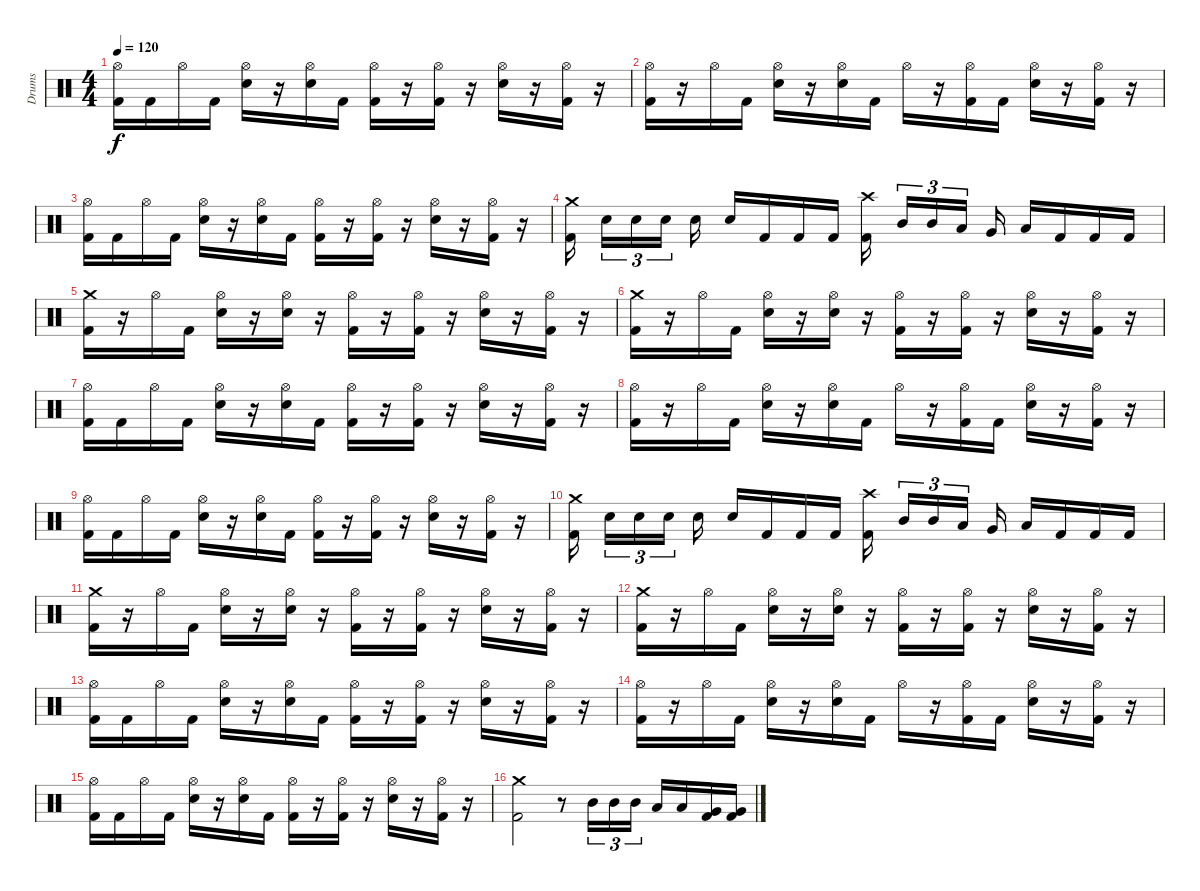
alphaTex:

\track ("Drums" "Drums") {instrument percussion}
\staff {score}
\articulation defaults
\ts (4 4)
\tempo 120
\clef neutral
\ks c
("Hi-Hat (open)" "Kick (hit) 2").16{dy f} "Kick (hit) 2".16 "Hi-Hat (open)".16 "Kick (hit) 2".16 ("Hi-Hat (open)" "Electric Snare (hit)").16 r.16 ("Hi-Hat (open)" "Electric Snare (hit)").16 "Kick (hit) 2".16 ("Hi-Hat (open)" "Kick (hit) 2").16 r.16 ("Hi-Hat (open)" "Kick (hit) 2").16 r.16 ("Hi-Hat (open)" "Electric Snare (hit)").16 r.16 ("Hi-Hat (open)" "Kick (hit) 2").16 r.16 |
("Hi-Hat (open)" "Kick (hit) 2").16 r.16 "Hi-Hat (open)".16 "Kick (hit) 2".16 ("Hi-Hat (open)" "Electric Snare (hit)").16 r.16 ("Hi-Hat (open)" "Electric Snare (hit)").16 "Kick (hit) 2".16 "Hi-Hat (open)".16 r.16 ("Hi-Hat (open)" "Kick (hit) 2").16 "Kick (hit) 2".16 ("Hi-Hat (open)" "Electric Snare (hit)").16 r.16 ("Hi-Hat (open)" "Kick (hit) 2").16 r.16 |
("Hi-Hat (open)" "Kick (hit) 2").16 "Kick (hit) 2".16 "Hi-Hat (open)".16 "Kick (hit) 2".16 ("Hi-Hat (open)" "Electric Snare (hit)").16 r.16 ("Hi-Hat (open)" "Electric Snare (hit)").16 "Kick (hit) 2".16 ("Hi-Hat (open)" "Kick (hit) 2").16 r.16 ("Hi-Hat (open)" "Kick (hit) 2").16 r.16 ("Hi-Hat (open)" "Electric Snare (hit)").16 r.16 ("Hi-Hat (open)" "Kick (hit) 2").16 r.16 |
("Crash medium (hit)" "Kick (hit) 2").16 "Electric Snare (hit)".16{tu (3 2)} "Electric Snare (hit)".16{tu (3 2)} "Electric Snare (hit)".16{tu (3 2)} "Electric Snare (hit)".16 "Electric Snare (hit)".16 "Kick (hit) 2".16 "Kick (hit) 2".16 "Kick (hit) 2".16 ("Crash high (hit)" "Kick (hit) 2").16 "Mid Tom (hit)".16{tu (3 2)} "Mid Tom (hit)".16{tu (3 2)} "Low Tom (hit)".16{tu (3 2)} "Very Low Tom (hit)".16 "Low Floor Tom (hit)".16 "Kick (hit) 2".16 "Kick (hit) 2".16 "Kick (hit) 2".16 |
("Crash medium (hit)" "Kick (hit) 2").16 r.16 "Hi-Hat (open)".16 "Kick (hit) 2".16 ("Hi-Hat (open)" "Electric Snare (hit)").16 r.16 ("Hi-Hat (open)" "Electric Snare (hit)").16 r.16 ("Hi-Hat (open)" "Kick (hit) 2").16 r.16 ("Hi-Hat (open)" "Kick (hit) 2").16 r.16 ("Hi-Hat (open)" "Electric Snare (hit)").16 r.16 ("Hi-Hat (open)" "Kick (hit) 2").16 r.16 |
("Crash medium (hit)" "Kick (hit) 2").16 r.16 "Hi-Hat (open)".16 "Kick (hit) 2".16 ("Hi-Hat (open)" "Electric Snare (hit)").16 r.16 ("Hi-Hat (open)" "Electric Snare (hit)").16 r.16 ("Hi-Hat (open)" "Kick (hit) 2").16 r.16 ("Hi-Hat (open)" "Kick (hit) 2").16 r.16 ("Hi-Hat (open)" "Electric Snare (hit)").16 r.16 ("Hi-Hat (open)" "Kick (hit) 2").16 r.16 |
("Hi-Hat (open)" "Kick (hit) 2").16 "Kick (hit) 2".16 "Hi-Hat (open)".16 "Kick (hit) 2".16 ("Hi-Hat (open)" "Electric Snare (hit)").16 r.16 ("Hi-Hat (open)" "Electric Snare (hit)").16 "Kick (hit) 2".16 ("Hi-Hat (open)" "Kick (hit) 2").16 r.16 ("Hi-Hat (open)" "Kick (hit) 2").16 r.16 ("Hi-Hat (open)" "Electric Snare (hit)").16 r.16 ("Hi-Hat (open)" "Kick (hit) 2").16 r.16 |
("Hi-Hat (open)" "Kick (hit) 2").16 r.16 "Hi-Hat (open)".16 "Kick (hit) 2".16 ("Hi-Hat (open)" "Electric Snare (hit)").16 r.16 ("Hi-Hat (open)" "Electric Snare (hit)").16 "Kick (hit) 2".16 "Hi-Hat (open)".16 r.16 ("Hi-Hat (open)" "Kick (hit) 2").16 "Kick (hit) 2".16 ("Hi-Hat (open)" "Electric Snare (hit)").16 r.16 ("Hi-Hat (open)" "Kick (hit) 2").16 r.16 |
("Hi-Hat (open)" "Kick (hit) 2").16 "Kick (hit) 2".16 "Hi-Hat (open)".16 "Kick (hit) 2".16 ("Hi-Hat (open)" "Electric Snare (hit)").16 r.16 ("Hi-Hat (open)" "Electric Snare (hit)").16 "Kick (hit) 2".16 ("Hi-Hat (open)" "Kick (hit) 2").16 r.16 ("Hi-Hat (open)" "Kick (hit) 2").16 r.16 ("Hi-Hat (open)" "Electric Snare (hit)").16 r.16 ("Hi-Hat (open)" "Kick (hit) 2").16 r.16 |
("Crash medium (hit)" "Kick (hit) 2").16 "Electric Snare (hit)".16{tu (3 2)} "Electric Snare (hit)".16{tu (3 2)} "Electric Snare (hit)".16{tu (3 2)} "Electric Snare (hit)".16 "Electric Snare (hit)".16 "Kick (hit) 2".16 "Kick (hit) 2".16 "Kick (hit) 2".16 ("Crash high (hit)" "Kick (hit) 2").16 "Mid Tom (hit)".16{tu (3 2)} "Mid Tom (hit)".16{tu (3 2)} "Low Tom (hit)".16{tu (3 2)} "Very Low Tom (hit)".16 "Low Floor Tom (hit)".16 "Kick (hit) 2".16 "Kick (hit) 2".16 "Kick (hit) 2".16 |
("Crash medium (hit)" "Kick (hit) 2").16 r.16 "Hi-Hat (open)".16 "Kick (hit) 2".16 ("Hi-Hat (open)" "Electric Snare (hit)").16 r.16 ("Hi-Hat (open)" "Electric Snare (hit)").16 r.16 ("Hi-Hat (open)" "Kick (hit) 2").16 r.16 ("Hi-Hat (open)" "Kick (hit) 2").16 r.16 ("Hi-Hat (open)" "Electric Snare (hit)").16 r.16 ("Hi-Hat (open)" "Kick (hit) 2").16 r.16 |
("Crash medium (hit)" "Kick (hit) 2").16 r.16 "Hi-Hat (open)".16 "Kick (hit) 2".16 ("Hi-Hat (open)" "Electric Snare (hit)").16 r.16 ("Hi-Hat (open)" "Electric Snare (hit)").16 r.16 ("Hi-Hat (open)" "Kick (hit) 2").16 r.16 ("Hi-Hat (open)" "Kick (hit) 2").16 r.16 ("Hi-Hat (open)" "Electric Snare (hit)").16 r.16 ("Hi-Hat (open)" "Kick (hit) 2").16 r.16 |
("Hi-Hat (open)" "Kick (hit) 2").16 "Kick (hit) 2".16 "Hi-Hat (open)".16 "Kick (hit) 2".16 ("Hi-Hat (open)" "Electric Snare (hit)").16 r.16 ("Hi-Hat (open)" "Electric Snare (hit)").16 "Kick (hit) 2".16 ("Hi-Hat (open)" "Kick (hit) 2").16 r.16 ("Hi-Hat (open)" "Kick (hit) 2").16 r.16 ("Hi-Hat (open)" "Electric Snare (hit)").16 r.16 ("Hi-Hat (open)" "Kick (hit) 2").16 r.16 |
("Hi-Hat (open)" "Kick (hit) 2").16 r.16 "Hi-Hat (open)".16 "Kick (hit) 2".16 ("Hi-Hat (open)" "Electric Snare (hit)").16 r.16 ("Hi-Hat (open)" "Electric Snare (hit)").16 "Kick (hit) 2".16 "Hi-Hat (open)".16 r.16 ("Hi-Hat (open)" "Kick (hit) 2").16 "Kick (hit) 2".16 ("Hi-Hat (open)" "Electric Snare (hit)").16 r.16 ("Hi-Hat (open)" "Kick (hit) 2").16 r.16 |
("Hi-Hat (open)" "Kick (hit) 2").16 "Kick (hit) 2".16 "Hi-Hat (open)".16 "Kick (hit) 2".16 ("Hi-Hat (open)" "Electric Snare (hit)").16 r.16 ("Hi-Hat (open)" "Electric Snare (hit)").16 "Kick (hit) 2".16 ("Hi-Hat (open)" "Kick (hit) 2").16 r.16 ("Hi-Hat (open)" "Kick (hit) 2").16 r.16 ("Hi-Hat (open)" "Electric Snare (hit)").16 r.16 ("Hi-Hat (open)" "Kick (hit) 2").16 r.16 |
\section ("" "")
("Crash medium (hit)" "Kick (hit) 2").2 r.8 "Mid Tom (hit)".16{tu (3 2)} "Mid Tom (hit)".16{tu (3 2)} "Mid Tom (hit)".16{tu (3 2)} "Low Tom (hit)".16 "Low Tom (hit)".16 ("Very Low Tom (hit)" "Kick (hit) 2").16 ("Very Low Tom (hit)" "Kick (hit) 2").16
